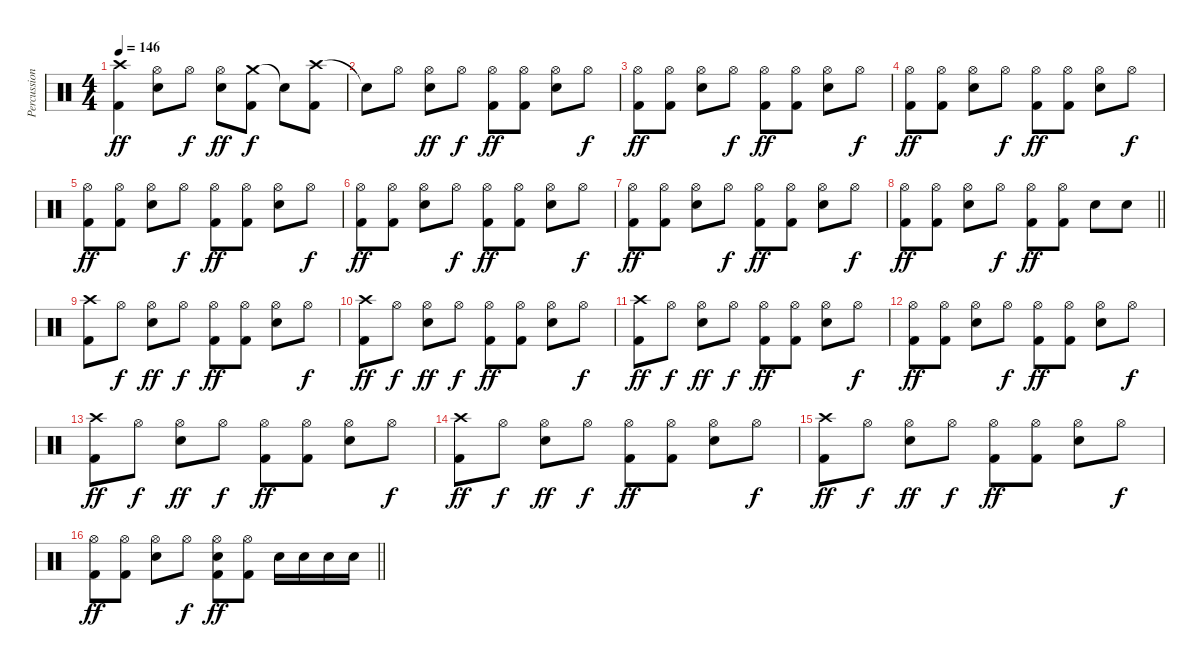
\track ("Percussion" "Percussion") {instrument percussion}
\staff {score}
\articulation defaults
\ts (4 4)
\tempo 146
\clef neutral
\ks c
("Crash high (hit)" "Kick (hit) 2").4{dy ff} ("Hi-Hat (open)" "Snare (hit) 2").8 "Hi-Hat (open)".8{dy f} ("Hi-Hat (open)" "Snare (hit) 2").8{dy ff} ("Crash medium (hit)" "Kick (hit) 2").8{dy f} "Snare (hit)"{t}.8 ("Crash high (hit)" "Kick (hit) 2").8 |
"Snare (hit)"{t}.8 "Hi-Hat (open)".8 ("Hi-Hat (open)" "Snare (hit) 2").8{dy ff} "Hi-Hat (open)".8{dy f} ("Hi-Hat (open)" "Kick (hit) 2").8{dy ff} ("Hi-Hat (open)" "Kick (hit) 2").8 ("Hi-Hat (open)" "Snare (hit) 2").8 "Hi-Hat (open)".8{dy f} |
("Hi-Hat (open)" "Kick (hit) 2").8{dy ff} ("Hi-Hat (open)" "Kick (hit) 2").8 ("Hi-Hat (open)" "Snare (hit) 2").8 "Hi-Hat (open)".8{dy f} ("Hi-Hat (open)" "Kick (hit) 2").8{dy ff} ("Hi-Hat (open)" "Kick (hit) 2").8 ("Hi-Hat (open)" "Snare (hit) 2").8 "Hi-Hat (open)".8{dy f} |
("Hi-Hat (open)" "Kick (hit) 2").8{dy ff} ("Hi-Hat (open)" "Kick (hit) 2").8 ("Hi-Hat (open)" "Snare (hit) 2").8 "Hi-Hat (open)".8{dy f} ("Hi-Hat (open)" "Kick (hit) 2").8{dy ff} ("Hi-Hat (open)" "Kick (hit) 2").8 ("Hi-Hat (open)" "Snare (hit) 2").8 "Hi-Hat (open)".8{dy f} |
("Hi-Hat (open)" "Kick (hit) 2").8{dy ff} ("Hi-Hat (open)" "Kick (hit) 2").8 ("Hi-Hat (open)" "Snare (hit) 2").8 "Hi-Hat (open)".8{dy f} ("Hi-Hat (open)" "Kick (hit) 2").8{dy ff} ("Hi-Hat (open)" "Kick (hit) 2").8 ("Hi-Hat (open)" "Snare (hit) 2").8 "Hi-Hat (open)".8{dy f} |
("Hi-Hat (open)" "Kick (hit) 2").8{dy ff} ("Hi-Hat (open)" "Kick (hit) 2").8 ("Hi-Hat (open)" "Snare (hit) 2").8 "Hi-Hat (open)".8{dy f} ("Hi-Hat (open)" "Kick (hit) 2").8{dy ff} ("Hi-Hat (open)" "Kick (hit) 2").8 ("Hi-Hat (open)" "Snare (hit) 2").8 "Hi-Hat (open)".8{dy f} |
("Hi-Hat (open)" "Kick (hit) 2").8{dy ff} ("Hi-Hat (open)" "Kick (hit) 2").8 ("Hi-Hat (open)" "Snare (hit) 2").8 "Hi-Hat (open)".8{dy f} ("Hi-Hat (open)" "Kick (hit) 2").8{dy ff} ("Hi-Hat (open)" "Kick (hit) 2").8 ("Hi-Hat (open)" "Snare (hit) 2").8 "Hi-Hat (open)".8{dy f} |
\barLineRight lightlight
("Hi-Hat (open)" "Kick (hit) 2").8{dy ff} ("Hi-Hat (open)" "Kick (hit) 2").8 ("Hi-Hat (open)" "Snare (hit) 2").8 "Hi-Hat (open)".8{dy f} ("Hi-Hat (open)" "Kick (hit) 2").8{dy ff} ("Hi-Hat (open)" "Kick (hit) 2").8 "Snare (hit) 2".8 "Snare (hit) 2".8 |
("Crash high (hit)" "Kick (hit) 2").8 "Hi-Hat (open)".8{dy f} ("Hi-Hat (open)" "Snare (hit) 2").8{dy ff} "Hi-Hat (open)".8{dy f} ("Hi-Hat (open)" "Kick (hit) 2").8{dy ff} ("Hi-Hat (open)" "Kick (hit) 2").8 ("Hi-Hat (open)" "Snare (hit) 2").8 "Hi-Hat (open)".8{dy f} |
("Crash high (hit)" "Kick (hit) 2").8{dy ff} "Hi-Hat (open)".8{dy f} ("Hi-Hat (open)" "Snare (hit) 2").8{dy ff} "Hi-Hat (open)".8{dy f} ("Hi-Hat (open)" "Kick (hit) 2").8{dy ff} ("Hi-Hat (open)" "Kick (hit) 2").8 ("Hi-Hat (open)" "Snare (hit) 2").8 "Hi-Hat (open)".8{dy f} |
("Crash high (hit)" "Kick (hit) 2").8{dy ff} "Hi-Hat (open)".8{dy f} ("Hi-Hat (open)" "Snare (hit) 2").8{dy ff} "Hi-Hat (open)".8{dy f} ("Hi-Hat (open)" "Kick (hit) 2").8{dy ff} ("Hi-Hat (open)" "Kick (hit) 2").8 ("Hi-Hat (open)" "Snare (hit) 2").8 "Hi-Hat (open)".8{dy f} |
("Hi-Hat (open)" "Kick (hit) 2").8{dy ff} ("Hi-Hat (open)" "Kick (hit) 2").8 ("Hi-Hat (open)" "Snare (hit) 2").8 "Hi-Hat (open)".8{dy f} ("Hi-Hat (open)" "Kick (hit) 2").8{dy ff} ("Hi-Hat (open)" "Kick (hit) 2").8 ("Hi-Hat (open)" "Snare (hit) 2").8 "Hi-Hat (open)".8{dy f} |
("Crash high (hit)" "Kick (hit) 2").8{dy ff} "Hi-Hat (open)".8{dy f} ("Hi-Hat (open)" "Snare (hit) 2").8{dy ff} "Hi-Hat (open)".8{dy f} ("Hi-Hat (open)" "Kick (hit) 2").8{dy ff} ("Hi-Hat (open)" "Kick (hit) 2").8 ("Hi-Hat (open)" "Snare (hit) 2").8 "Hi-Hat (open)".8{dy f} |
("Crash high (hit)" "Kick (hit) 2").8{dy ff} "Hi-Hat (open)".8{dy f} ("Hi-Hat (open)" "Snare (hit) 2").8{dy ff} "Hi-Hat (open)".8{dy f} ("Hi-Hat (open)" "Kick (hit) 2").8{dy ff} ("Hi-Hat (open)" "Kick (hit) 2").8 ("Hi-Hat (open)" "Snare (hit) 2").8 "Hi-Hat (open)".8{dy f} |
("Crash high (hit)" "Kick (hit) 2").8{dy ff} "Hi-Hat (open)".8{dy f} ("Hi-Hat (open)" "Snare (hit) 2").8{dy ff} "Hi-Hat (open)".8{dy f} ("Hi-Hat (open)" "Kick (hit) 2").8{dy ff} ("Hi-Hat (open)" "Kick (hit) 2").8 ("Hi-Hat (open)" "Snare (hit) 2").8 "Hi-Hat (open)".8{dy f} |
\barLineRight lightlight
("Hi-Hat (open)" "Kick (hit) 2").8{dy ff} ("Hi-Hat (open)" "Kick (hit) 2").8 ("Hi-Hat (open)" "Snare (hit) 2").8 "Hi-Hat (open)".8{dy f} ("Hi-Hat (open)" "Snare (hit) 2" "Kick (hit) 2").8{dy ff} ("Hi-Hat (open)" "Kick (hit) 2").8 "Snare (hit) 2".16 "Snare (hit) 2".16 "Snare (hit) 2".16 "Snare (hit) 2".16
